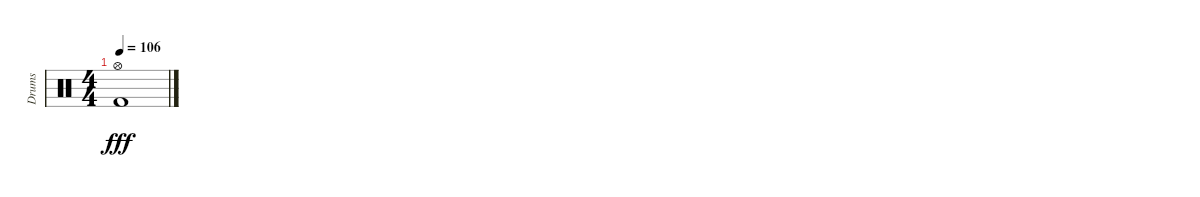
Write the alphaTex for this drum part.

\track ("Drums" "Drums") {instrument percussion}
\staff {score}
\articulation defaults
\ts (4 4)
\tempo 106
\clef neutral
\ks c
("Hi-Hat (open)" "Kick (hit) 2").1{dy fff}
